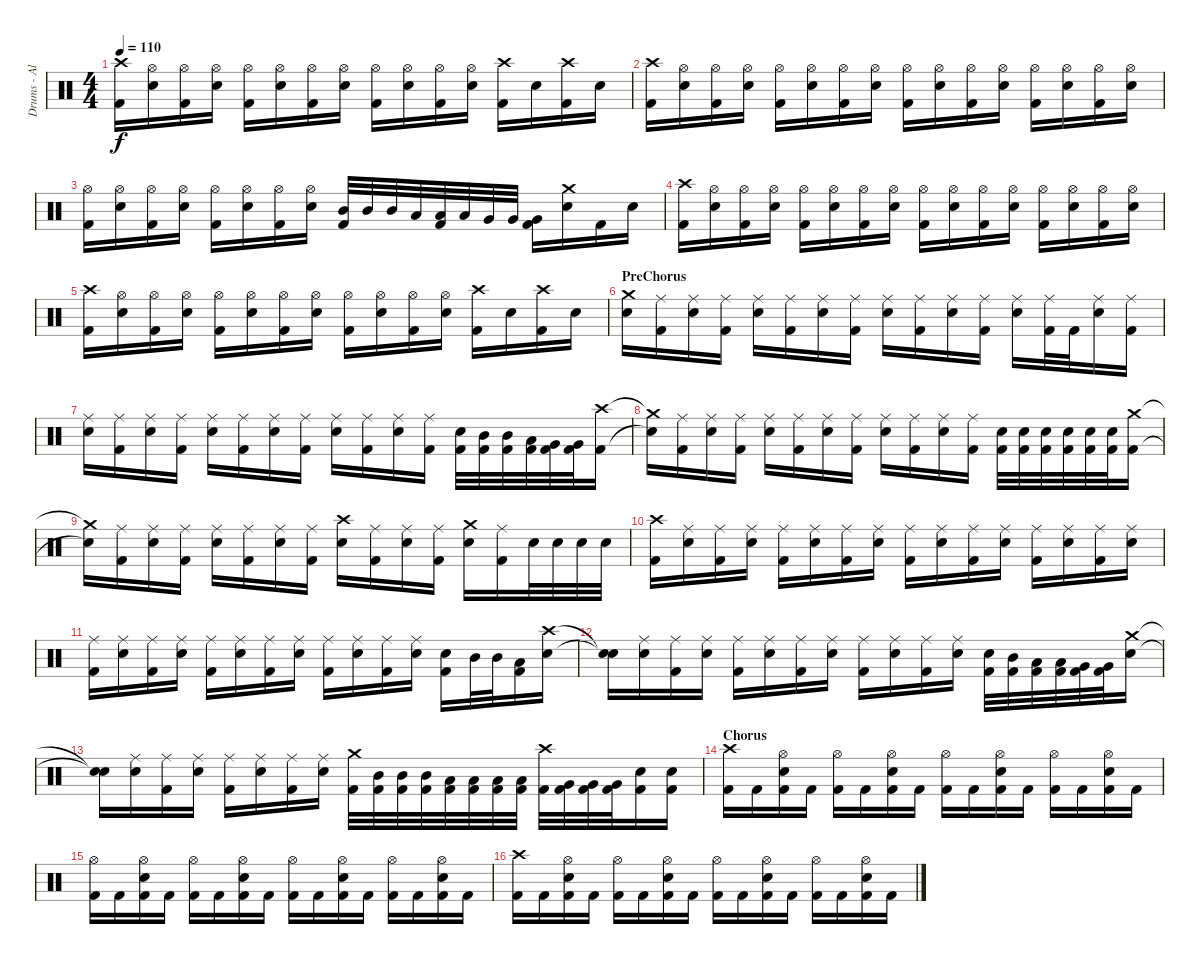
\track ("Drums - Albin" "Drums - Al") {instrument percussion}
\staff {score}
\articulation defaults
\ts (4 4)
\tempo 110
\clef neutral
\ks c
("Crash high (hit)" "Kick (hit) 2").16{dy f} ("Hi-Hat (open)" "Snare (hit) 2").16 ("Hi-Hat (open)" "Kick (hit) 2").16 ("Hi-Hat (open)" "Snare (hit) 2").16 ("Hi-Hat (open)" "Kick (hit) 2").16 ("Hi-Hat (open)" "Snare (hit) 2").16 ("Hi-Hat (open)" "Kick (hit) 2").16 ("Hi-Hat (open)" "Snare (hit) 2").16 ("Hi-Hat (open)" "Kick (hit) 2").16 ("Hi-Hat (open)" "Snare (hit) 2").16 ("Hi-Hat (open)" "Kick (hit) 2").16 ("Hi-Hat (open)" "Snare (hit) 2").16 ("Crash high (hit)" "Kick (hit) 2").16 "Snare (hit) 2".16 ("Crash high (hit)" "Kick (hit) 2").16 "Snare (hit) 2".16 |
("Crash high (hit)" "Kick (hit) 2").16 ("Hi-Hat (open)" "Snare (hit) 2").16 ("Hi-Hat (open)" "Kick (hit) 2").16 ("Hi-Hat (open)" "Snare (hit) 2").16 ("Hi-Hat (open)" "Kick (hit) 2").16 ("Hi-Hat (open)" "Snare (hit) 2").16 ("Hi-Hat (open)" "Kick (hit) 2").16 ("Hi-Hat (open)" "Snare (hit) 2").16 ("Hi-Hat (open)" "Kick (hit) 2").16 ("Hi-Hat (open)" "Snare (hit) 2").16 ("Hi-Hat (open)" "Kick (hit) 2").16 ("Hi-Hat (open)" "Snare (hit) 2").16 ("Hi-Hat (open)" "Kick (hit) 2").16 ("Hi-Hat (open)" "Snare (hit) 2").16 ("Hi-Hat (open)" "Kick (hit) 2").16 ("Hi-Hat (open)" "Snare (hit) 2").16 |
("Hi-Hat (open)" "Kick (hit) 2").16 ("Hi-Hat (open)" "Snare (hit) 2").16 ("Hi-Hat (open)" "Kick (hit) 2").16 ("Hi-Hat (open)" "Snare (hit) 2").16 ("Hi-Hat (open)" "Kick (hit) 2").16 ("Hi-Hat (open)" "Snare (hit) 2").16 ("Hi-Hat (open)" "Kick (hit) 2").16 ("Hi-Hat (open)" "Snare (hit) 2").16 ("Mid Tom (hit)" "Kick (hit) 2").32 "Mid Tom (hit)".32 "Mid Tom (hit)".32 "Low Tom (hit)".32 ("Low Tom (hit)" "Kick (hit) 2").32 "Low Tom (hit)".32 "Very Low Tom (hit)".32 "Very Low Tom (hit)".32 ("Very Low Tom (hit)" "Kick (hit) 2").16 ("Crash medium (hit)" "Snare (hit) 2").16 "Kick (hit) 2".16 "Snare (hit) 2".16 |
("Crash high (hit)" "Kick (hit) 2").16 ("Hi-Hat (open)" "Snare (hit) 2").16 ("Hi-Hat (open)" "Kick (hit) 2").16 ("Hi-Hat (open)" "Snare (hit) 2").16 ("Hi-Hat (open)" "Kick (hit) 2").16 ("Hi-Hat (open)" "Snare (hit) 2").16 ("Hi-Hat (open)" "Kick (hit) 2").16 ("Hi-Hat (open)" "Snare (hit) 2").16 ("Hi-Hat (open)" "Kick (hit) 2").16 ("Hi-Hat (open)" "Snare (hit) 2").16 ("Hi-Hat (open)" "Kick (hit) 2").16 ("Hi-Hat (open)" "Snare (hit) 2").16 ("Hi-Hat (open)" "Kick (hit) 2").16 ("Hi-Hat (open)" "Snare (hit) 2").16 ("Hi-Hat (open)" "Kick (hit) 2").16 ("Hi-Hat (open)" "Snare (hit) 2").16 |
("Crash high (hit)" "Kick (hit) 2").16 ("Hi-Hat (open)" "Snare (hit) 2").16 ("Hi-Hat (open)" "Kick (hit) 2").16 ("Hi-Hat (open)" "Snare (hit) 2").16 ("Hi-Hat (open)" "Kick (hit) 2").16 ("Hi-Hat (open)" "Snare (hit) 2").16 ("Hi-Hat (open)" "Kick (hit) 2").16 ("Hi-Hat (open)" "Snare (hit) 2").16 ("Hi-Hat (open)" "Kick (hit) 2").16 ("Hi-Hat (open)" "Snare (hit) 2").16 ("Hi-Hat (open)" "Kick (hit) 2").16 ("Hi-Hat (open)" "Snare (hit) 2").16 ("Crash high (hit)" "Kick (hit) 2").16 "Snare (hit) 2".16 ("Crash high (hit)" "Kick (hit) 2").16 "Snare (hit) 2".16 |
\section ("" "PreChorus")
("Crash medium (hit)" "Snare (hit) 2").16 ("Ride (middle)" "Kick (hit) 2").16 ("Ride (middle)" "Snare (hit) 2").16 ("Ride (middle)" "Kick (hit) 2").16 ("Ride (middle)" "Snare (hit) 2").16 ("Ride (middle)" "Kick (hit) 2").16 ("Ride (middle)" "Snare (hit) 2").16 ("Ride (middle)" "Kick (hit) 2").16 ("Ride (middle)" "Snare (hit) 2").16 ("Ride (middle)" "Kick (hit) 2").16 ("Ride (middle)" "Snare (hit) 2").16 ("Ride (middle)" "Kick (hit) 2").16 ("Ride (middle)" "Snare (hit) 2").16 ("Ride (middle)" "Kick (hit) 2").32 "Kick (hit) 2".32 ("Ride (middle)" "Snare (hit) 2").16 ("Ride (middle)" "Kick (hit) 2").16 |
("Ride (middle)" "Snare (hit) 2").16 ("Ride (middle)" "Kick (hit) 2").16 ("Ride (middle)" "Snare (hit) 2").16 ("Ride (middle)" "Kick (hit) 2").16 ("Ride (middle)" "Snare (hit) 2").16 ("Ride (middle)" "Kick (hit) 2").16 ("Ride (middle)" "Snare (hit) 2").16 ("Ride (middle)" "Kick (hit) 2").16 ("Ride (middle)" "Snare (hit) 2").16 ("Ride (middle)" "Kick (hit) 2").16 ("Ride (middle)" "Snare (hit) 2").16 ("Ride (middle)" "Kick (hit) 2").16 ("Snare (hit) 2" "Kick (hit) 2").32 ("Mid Tom (hit)" "Kick (hit) 2").32 ("Mid Tom (hit)" "Kick (hit) 2").32 ("Low Tom (hit)" "Kick (hit) 2").32 ("Very Low Tom (hit)" "Kick (hit) 2").32 ("Very Low Tom (hit)" "Kick (hit) 2").32 ("Crash high (hit)" "Kick (hit) 2").16 |
("Crash medium (hit)"{t} "Snare (hit)"{t}).16 ("Ride (middle)" "Kick (hit) 2").16 ("Ride (middle)" "Snare (hit) 2").16 ("Ride (middle)" "Kick (hit) 2").16 ("Ride (middle)" "Snare (hit) 2").16 ("Ride (middle)" "Kick (hit) 2").16 ("Ride (middle)" "Snare (hit) 2").16 ("Ride (middle)" "Kick (hit) 2").16 ("Ride (middle)" "Snare (hit) 2").16 ("Ride (middle)" "Kick (hit) 2").16 ("Ride (middle)" "Snare (hit) 2").16 ("Ride (middle)" "Kick (hit) 2").16 ("Snare (hit) 2" "Kick (hit) 2").32 ("Snare (hit) 2" "Kick (hit) 2").32 ("Snare (hit) 2" "Kick (hit) 2").32 ("Snare (hit) 2" "Kick (hit) 2").32 ("Snare (hit) 2" "Kick (hit) 2").32 ("Snare (hit) 2" "Kick (hit) 2").32 ("Crash medium (hit)" "Kick (hit) 2").16 |
("Crash medium (hit)"{t} "Snare (hit)"{t}).16 ("Ride (middle)" "Kick (hit) 2").16 ("Ride (middle)" "Snare (hit) 2").16 ("Ride (middle)" "Kick (hit) 2").16 ("Ride (middle)" "Snare (hit) 2").16 ("Ride (middle)" "Kick (hit) 2").16 ("Ride (middle)" "Snare (hit) 2").16 ("Ride (middle)" "Kick (hit) 2").16 ("Crash high (hit)" "Snare (hit) 2").16 ("Ride (middle)" "Kick (hit) 2").16 ("Ride (middle)" "Snare (hit) 2").16 ("Ride (middle)" "Kick (hit) 2").16 ("Crash medium (hit)" "Snare (hit) 2").16 ("Ride (middle)" "Kick (hit) 2").16 "Snare (hit) 2".32 "Snare (hit) 2".32 "Snare (hit) 2".32 "Snare (hit) 2".32 |
("Crash high (hit)" "Kick (hit) 2").16 ("Ride (middle)" "Snare (hit) 2").16 ("Ride (middle)" "Kick (hit) 2").16 ("Ride (middle)" "Snare (hit) 2").16 ("Ride (middle)" "Kick (hit) 2").16 ("Ride (middle)" "Snare (hit) 2").16 ("Ride (middle)" "Kick (hit) 2").16 ("Ride (middle)" "Snare (hit) 2").16 ("Ride (middle)" "Kick (hit) 2").16 ("Ride (middle)" "Snare (hit) 2").16 ("Ride (middle)" "Kick (hit) 2").16 ("Ride (middle)" "Snare (hit) 2").16 ("Ride (middle)" "Kick (hit) 2").16 ("Ride (middle)" "Snare (hit) 2").16 ("Ride (middle)" "Kick (hit) 2").16 ("Ride (middle)" "Snare (hit) 2").16 |
("Ride (middle)" "Kick (hit) 2").16 ("Ride (middle)" "Snare (hit) 2").16 ("Ride (middle)" "Kick (hit) 2").16 ("Ride (middle)" "Snare (hit) 2").16 ("Ride (middle)" "Kick (hit) 2").16 ("Ride (middle)" "Snare (hit) 2").16 ("Ride (middle)" "Kick (hit) 2").16 ("Ride (middle)" "Snare (hit) 2").16 ("Ride (middle)" "Kick (hit) 2").16 ("Ride (middle)" "Snare (hit) 2").16 ("Ride (middle)" "Kick (hit) 2").16 ("Ride (middle)" "Snare (hit) 2").16 ("Snare (hit) 2" "Kick (hit) 2").16 "Mid Tom (hit)".32 "Mid Tom (hit)".32 ("Low Tom (hit)" "Kick (hit) 2").16 ("Crash high (hit)" "Snare (hit) 2").16 |
("Snare (hit)"{t} "Snare (hit)"{t}).16 ("Ride (middle)" "Snare (hit) 2").16 ("Ride (middle)" "Kick (hit) 2").16 ("Ride (middle)" "Snare (hit) 2").16 ("Ride (middle)" "Kick (hit) 2").16 ("Ride (middle)" "Snare (hit) 2").16 ("Ride (middle)" "Kick (hit) 2").16 ("Ride (middle)" "Snare (hit) 2").16 ("Ride (middle)" "Kick (hit) 2").16 ("Ride (middle)" "Snare (hit) 2").16 ("Ride (middle)" "Kick (hit) 2").16 ("Ride (middle)" "Snare (hit) 2").16 ("Snare (hit) 2" "Kick (hit) 2").32 ("Mid Tom (hit)" "Kick (hit) 2").32 ("Low Tom (hit)" "Kick (hit) 2").32 ("Low Tom (hit)" "Kick (hit) 2").32 ("Very Low Tom (hit)" "Kick (hit) 2").32 ("Very Low Tom (hit)" "Kick (hit) 2").32 ("Crash medium (hit)" "Snare (hit) 2").16 |
("Snare (hit)"{t} "Snare (hit)"{t}).16 ("Ride (middle)" "Snare (hit) 2").16 ("Ride (middle)" "Kick (hit) 2").16 ("Ride (middle)" "Snare (hit) 2").16 ("Ride (middle)" "Kick (hit) 2").16 ("Ride (middle)" "Snare (hit) 2").16 ("Ride (middle)" "Kick (hit) 2").16 ("Ride (middle)" "Snare (hit) 2").16 ("Crash medium (hit)" "Kick (hit) 2").32 ("Mid Tom (hit)" "Kick (hit) 2").32 ("Mid Tom (hit)" "Kick (hit) 2").32 ("Mid Tom (hit)" "Kick (hit) 2").32 ("Low Tom (hit)" "Kick (hit) 2").32 ("Low Tom (hit)" "Kick (hit) 2").32 ("Low Tom (hit)" "Kick (hit) 2").32 ("Low Tom (hit)" "Kick (hit) 2").32 ("Crash high (hit)" "Kick (hit) 2").32 ("Very Low Tom (hit)" "Kick (hit) 2").32 ("Very Low Tom (hit)" "Kick (hit) 2").32 ("Very Low Tom (hit)" "Kick (hit) 2").32 ("Snare (hit) 2" "Kick (hit) 2").16 ("Snare (hit) 2" "Kick (hit) 2").16 |
\section ("" "Chorus")
("Crash high (hit)" "Kick (hit) 2").16 "Kick (hit) 2".16 ("Hi-Hat (open)" "Snare (hit) 2" "Kick (hit) 2").16 "Kick (hit) 2".16 ("Hi-Hat (open)" "Kick (hit) 2").16 "Kick (hit) 2".16 ("Hi-Hat (open)" "Snare (hit) 2" "Kick (hit) 2").16 "Kick (hit) 2".16 ("Hi-Hat (open)" "Kick (hit) 2").16 "Kick (hit) 2".16 ("Hi-Hat (open)" "Snare (hit) 2" "Kick (hit) 2").16 "Kick (hit) 2".16 ("Hi-Hat (open)" "Kick (hit) 2").16 "Kick (hit) 2".16 ("Hi-Hat (open)" "Snare (hit) 2" "Kick (hit) 2").16 "Kick (hit) 2".16 |
("Hi-Hat (open)" "Kick (hit) 2").16 "Kick (hit) 2".16 ("Hi-Hat (open)" "Snare (hit) 2" "Kick (hit) 2").16 "Kick (hit) 2".16 ("Hi-Hat (open)" "Kick (hit) 2").16 "Kick (hit) 2".16 ("Hi-Hat (open)" "Snare (hit) 2" "Kick (hit) 2").16 "Kick (hit) 2".16 ("Hi-Hat (open)" "Kick (hit) 2").16 "Kick (hit) 2".16 ("Hi-Hat (open)" "Snare (hit) 2" "Kick (hit) 2").16 "Kick (hit) 2".16 ("Hi-Hat (open)" "Kick (hit) 2").16 "Kick (hit) 2".16 ("Hi-Hat (open)" "Snare (hit) 2" "Kick (hit) 2").16 "Kick (hit) 2".16 |
("Crash high (hit)" "Kick (hit) 2").16 "Kick (hit) 2".16 ("Hi-Hat (open)" "Snare (hit) 2" "Kick (hit) 2").16 "Kick (hit) 2".16 ("Hi-Hat (open)" "Kick (hit) 2").16 "Kick (hit) 2".16 ("Hi-Hat (open)" "Snare (hit) 2" "Kick (hit) 2").16 "Kick (hit) 2".16 ("Hi-Hat (open)" "Kick (hit) 2").16 "Kick (hit) 2".16 ("Hi-Hat (open)" "Snare (hit) 2" "Kick (hit) 2").16 "Kick (hit) 2".16 ("Hi-Hat (open)" "Kick (hit) 2").16 "Kick (hit) 2".16 ("Hi-Hat (open)" "Snare (hit) 2" "Kick (hit) 2").16 "Kick (hit) 2".16
